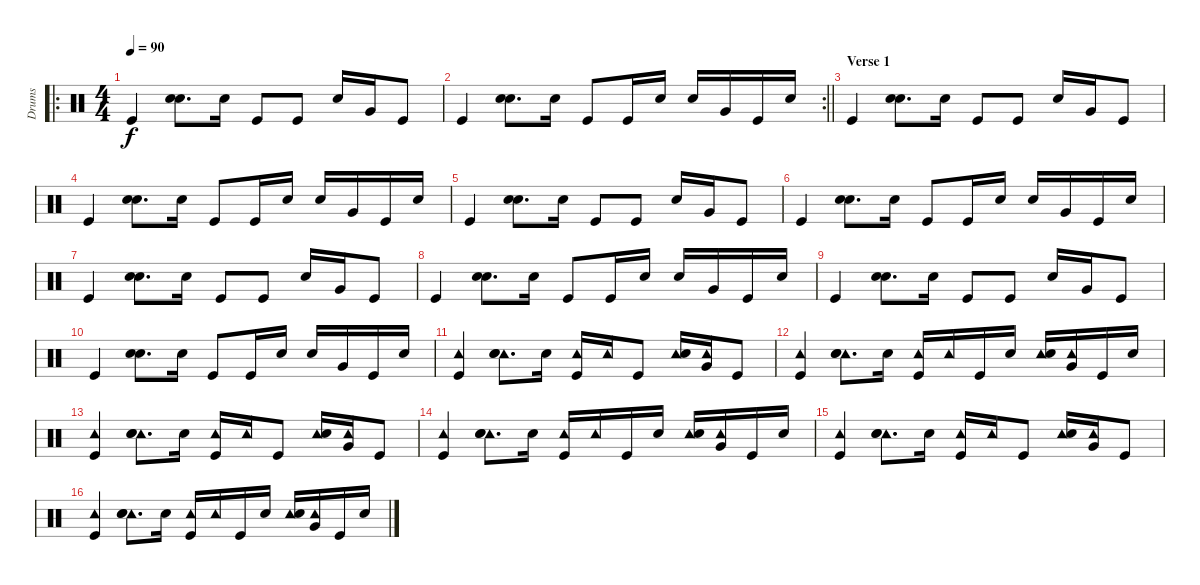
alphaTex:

\track ("Drums" "Drums") {instrument percussion}
\staff {score}
\articulation defaults
\ro
\ts (4 4)
\tempo 90
\clef neutral
\ks c "Kick (hit)".4{dy f}
("Electric Snare (hit)" "Hand Clap (hit)").8{d} "Electric Snare (hit)".16 "Kick (hit)".8 "Kick (hit)".8 "Electric Snare (hit)".16 "Very Low Tom (hit)".16 "Kick (hit)".8 |
\rc 2
\barLineRight lightlight "Kick (hit)".4
("Electric Snare (hit)" "Hand Clap (hit)").8{d} "Electric Snare (hit)".16 "Kick (hit)".8 "Kick (hit)".16 "Electric Snare (hit)".16 "Electric Snare (hit)".16 "Very Low Tom (hit)".16 "Kick (hit)".16 "Electric Snare (hit)".16 |
\section ("" "Verse 1")
"Kick (hit)".4 ("Electric Snare (hit)" "Hand Clap (hit)").8{d} "Electric Snare (hit)".16 "Kick (hit)".8 "Kick (hit)".8 "Electric Snare (hit)".16 "Very Low Tom (hit)".16 "Kick (hit)".8 |
"Kick (hit)".4 ("Electric Snare (hit)" "Hand Clap (hit)").8{d} "Electric Snare (hit)".16 "Kick (hit)".8 "Kick (hit)".16 "Electric Snare (hit)".16 "Electric Snare (hit)".16 "Very Low Tom (hit)".16 "Kick (hit)".16 "Electric Snare (hit)".16 |
"Kick (hit)".4 ("Electric Snare (hit)" "Hand Clap (hit)").8{d} "Electric Snare (hit)".16 "Kick (hit)".8 "Kick (hit)".8 "Electric Snare (hit)".16 "Very Low Tom (hit)".16 "Kick (hit)".8 |
"Kick (hit)".4 ("Electric Snare (hit)" "Hand Clap (hit)").8{d} "Electric Snare (hit)".16 "Kick (hit)".8 "Kick (hit)".16 "Electric Snare (hit)".16 "Electric Snare (hit)".16 "Very Low Tom (hit)".16 "Kick (hit)".16 "Electric Snare (hit)".16 |
"Kick (hit)".4 ("Electric Snare (hit)" "Hand Clap (hit)").8{d} "Electric Snare (hit)".16 "Kick (hit)".8 "Kick (hit)".8 "Electric Snare (hit)".16 "Very Low Tom (hit)".16 "Kick (hit)".8 |
"Kick (hit)".4 ("Electric Snare (hit)" "Hand Clap (hit)").8{d} "Electric Snare (hit)".16 "Kick (hit)".8 "Kick (hit)".16 "Electric Snare (hit)".16 "Electric Snare (hit)".16 "Very Low Tom (hit)".16 "Kick (hit)".16 "Electric Snare (hit)".16 |
"Kick (hit)".4 ("Electric Snare (hit)" "Hand Clap (hit)").8{d} "Electric Snare (hit)".16 "Kick (hit)".8 "Kick (hit)".8 "Electric Snare (hit)".16 "Very Low Tom (hit)".16 "Kick (hit)".8 |
"Kick (hit)".4 ("Electric Snare (hit)" "Hand Clap (hit)").8{d} "Electric Snare (hit)".16 "Kick (hit)".8 "Kick (hit)".16 "Electric Snare (hit)".16 "Electric Snare (hit)".16 "Very Low Tom (hit)".16 "Kick (hit)".16 "Electric Snare (hit)".16 |
("Tambourine (hit)" "Kick (hit)").4 ("Tambourine (hit)" "Electric Snare (hit)" "Hand Clap (hit)").8{d} "Electric Snare (hit)".16 ("Tambourine (hit)" "Kick (hit)").16 "Tambourine (hit)".16 "Kick (hit)".8 ("Tambourine (hit)" "Electric Snare (hit)").16 ("Tambourine (hit)" "Very Low Tom (hit)").16 "Kick (hit)".8 |
("Tambourine (hit)" "Kick (hit)").4 ("Tambourine (hit)" "Electric Snare (hit)" "Hand Clap (hit)").8{d} "Electric Snare (hit)".16 ("Tambourine (hit)" "Kick (hit)").16 "Tambourine (hit)".16 "Kick (hit)".16 "Electric Snare (hit)".16 ("Tambourine (hit)" "Electric Snare (hit)").16 ("Tambourine (hit)" "Very Low Tom (hit)").16 "Kick (hit)".16 "Electric Snare (hit)".16 |
("Tambourine (hit)" "Kick (hit)").4 ("Tambourine (hit)" "Electric Snare (hit)" "Hand Clap (hit)").8{d} "Electric Snare (hit)".16 ("Tambourine (hit)" "Kick (hit)").16 "Tambourine (hit)".16 "Kick (hit)".8 ("Tambourine (hit)" "Electric Snare (hit)").16 ("Tambourine (hit)" "Very Low Tom (hit)").16 "Kick (hit)".8 |
("Tambourine (hit)" "Kick (hit)").4 ("Tambourine (hit)" "Electric Snare (hit)" "Hand Clap (hit)").8{d} "Electric Snare (hit)".16 ("Tambourine (hit)" "Kick (hit)").16 "Tambourine (hit)".16 "Kick (hit)".16 "Electric Snare (hit)".16 ("Tambourine (hit)" "Electric Snare (hit)").16 ("Tambourine (hit)" "Very Low Tom (hit)").16 "Kick (hit)".16 "Electric Snare (hit)".16 |
("Tambourine (hit)" "Kick (hit)").4 ("Tambourine (hit)" "Electric Snare (hit)" "Hand Clap (hit)").8{d} "Electric Snare (hit)".16 ("Tambourine (hit)" "Kick (hit)").16 "Tambourine (hit)".16 "Kick (hit)".8 ("Tambourine (hit)" "Electric Snare (hit)").16 ("Tambourine (hit)" "Very Low Tom (hit)").16 "Kick (hit)".8 |
("Tambourine (hit)" "Kick (hit)").4 ("Tambourine (hit)" "Electric Snare (hit)" "Hand Clap (hit)").8{d} "Electric Snare (hit)".16 ("Tambourine (hit)" "Kick (hit)").16 "Tambourine (hit)".16 "Kick (hit)".16 "Electric Snare (hit)".16 ("Tambourine (hit)" "Electric Snare (hit)").16 ("Tambourine (hit)" "Very Low Tom (hit)").16 "Kick (hit)".16 "Electric Snare (hit)".16
